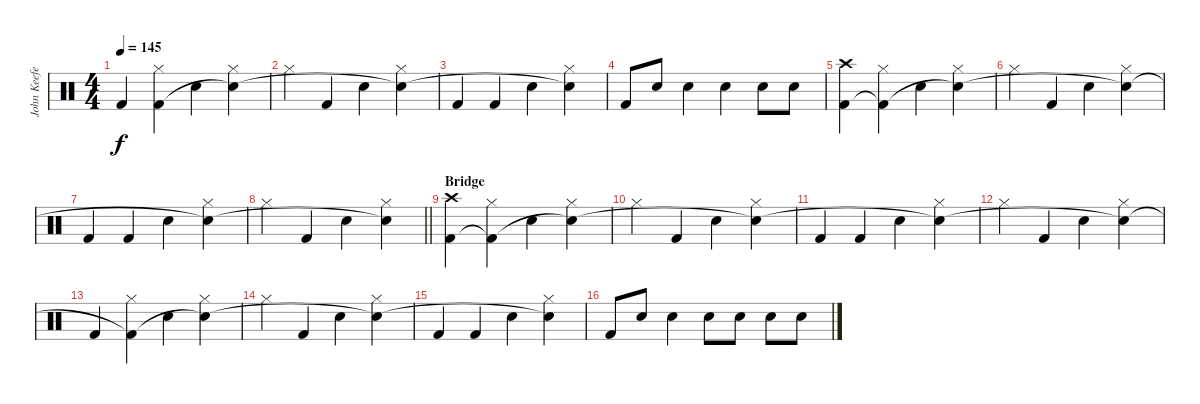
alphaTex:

\track ("John Keefe (Percussion)" "John Keefe") {instrument percussion}
\staff {score}
\articulation defaults
\ts (4 4)
\tempo 145
\clef neutral
\ks c "Kick (hit) 2".4{dy f}
("Hi-Hat (closed)" "Kick (hit) 2"{t}).4 "Snare (hit) 2".4 ("Hi-Hat (closed)" "Snare (hit) 2"{t}).4 |
"Hi-Hat (closed)".4 "Kick (hit) 2".4 "Snare (hit) 2".4 ("Hi-Hat (closed)" "Snare (hit) 2"{t}).4 |
"Kick (hit) 2".4 "Kick (hit) 2".4 "Snare (hit) 2".4 ("Hi-Hat (closed)" "Snare (hit) 2"{t}).4 |
"Kick (hit) 2".8 "Snare (hit) 2".8 "Snare (hit) 2".4 "Snare (hit) 2".4 "Snare (hit) 2".8 "Snare (hit) 2".8 |
("Crash high (hit)" "Kick (hit) 2").4 ("Hi-Hat (closed)" "Kick (hit) 2"{t}).4 "Snare (hit) 2".4 ("Hi-Hat (closed)" "Snare (hit) 2"{t}).4 |
"Hi-Hat (closed)".4 "Kick (hit) 2".4 "Snare (hit) 2".4 ("Hi-Hat (closed)" "Snare (hit) 2"{t}).4 |
"Kick (hit) 2".4 "Kick (hit) 2".4 "Snare (hit) 2".4 ("Hi-Hat (closed)" "Snare (hit) 2"{t}).4 |
\barLineRight lightlight "Hi-Hat (closed)".4 "Kick (hit) 2".4 "Snare (hit) 2".4
("Hi-Hat (closed)" "Snare (hit) 2"{t}).4 |
\section ("" "Bridge")
("Crash high (hit)" "Kick (hit) 2").4 ("Hi-Hat (closed)" "Kick (hit) 2"{t}).4 "Snare (hit) 2".4 ("Hi-Hat (closed)" "Snare (hit) 2"{t}).4 |
"Hi-Hat (closed)".4 "Kick (hit) 2".4 "Snare (hit) 2".4 ("Hi-Hat (closed)" "Snare (hit) 2"{t}).4 |
"Kick (hit) 2".4 "Kick (hit) 2".4 "Snare (hit) 2".4 ("Hi-Hat (closed)" "Snare (hit) 2"{t}).4 |
"Hi-Hat (closed)".4 "Kick (hit) 2".4 "Snare (hit) 2".4 ("Hi-Hat (closed)" "Snare (hit) 2"{t}).4 |
"Kick (hit) 2".4 ("Hi-Hat (closed)" "Kick (hit) 2"{t}).4 "Snare (hit) 2".4 ("Hi-Hat (closed)" "Snare (hit) 2"{t}).4 |
"Hi-Hat (closed)".4 "Kick (hit) 2".4 "Snare (hit) 2".4 ("Hi-Hat (closed)" "Snare (hit) 2"{t}).4 |
"Kick (hit) 2".4 "Kick (hit) 2".4 "Snare (hit) 2".4 ("Hi-Hat (closed)" "Snare (hit) 2"{t}).4 |
"Kick (hit) 2".8 "Snare (hit) 2".8 "Snare (hit) 2".4 "Snare (hit) 2".8 "Snare (hit) 2".8 "Snare (hit) 2".8 "Snare (hit) 2".8
